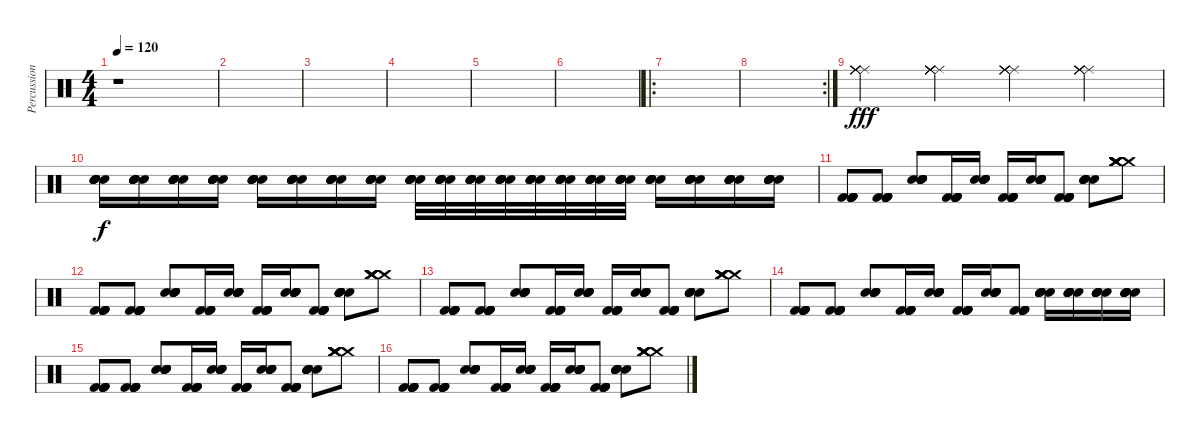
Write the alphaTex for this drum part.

\track ("Percussion" "Percussion") {instrument percussion}
\staff {score}
\articulation defaults
\ts (4 4)
\tempo 120
\clef neutral
\ks c
r.1{dy fff} |
|
|
|
|
|
\ro
|
\rc 2
|
("Ride (middle)" "Ride (middle)" "Ride (middle)" "Ride (middle)" "Ride (middle)" "Ride (middle)").4 ("Ride (middle)" "Ride (middle)" "Ride (middle)" "Ride (middle)" "Ride (middle)" "Ride (middle)").4 ("Ride (middle)" "Ride (middle)" "Ride (middle)" "Ride (middle)" "Ride (middle)" "Ride (middle)").4 ("Ride (middle)" "Ride (middle)" "Ride (middle)" "Ride (middle)" "Ride (middle)" "Ride (middle)").4 |
("Snare (hit) 2" "Snare (hit) 2" "Snare (hit) 2" "Snare (hit) 2" "Snare (hit) 2").16{dy f} ("Snare (hit) 2" "Snare (hit) 2" "Snare (hit) 2" "Snare (hit) 2" "Snare (hit) 2").16 ("Snare (hit) 2" "Snare (hit) 2" "Snare (hit) 2" "Snare (hit) 2" "Snare (hit) 2").16 ("Snare (hit) 2" "Snare (hit) 2" "Snare (hit) 2" "Snare (hit) 2" "Snare (hit) 2").16 ("Snare (hit) 2" "Snare (hit) 2" "Snare (hit) 2" "Snare (hit) 2" "Snare (hit) 2").16 ("Snare (hit) 2" "Snare (hit) 2" "Snare (hit) 2" "Snare (hit) 2" "Snare (hit) 2").16 ("Snare (hit) 2" "Snare (hit) 2" "Snare (hit) 2" "Snare (hit) 2" "Snare (hit) 2").16 ("Snare (hit) 2" "Snare (hit) 2" "Snare (hit) 2" "Snare (hit) 2" "Snare (hit) 2").16 ("Snare (hit) 2" "Snare (hit) 2" "Snare (hit) 2" "Snare (hit) 2" "Snare (hit) 2").32 ("Snare (hit) 2" "Snare (hit) 2" "Snare (hit) 2" "Snare (hit) 2" "Snare (hit) 2").32 ("Snare (hit) 2" "Snare (hit) 2" "Snare (hit) 2" "Snare (hit) 2" "Snare (hit) 2").32 ("Snare (hit) 2" "Snare (hit) 2" "Snare (hit) 2" "Snare (hit) 2" "Snare (hit) 2").32 ("Snare (hit) 2" "Snare (hit) 2" "Snare (hit) 2" "Snare (hit) 2" "Snare (hit) 2").32 ("Snare (hit) 2" "Snare (hit) 2" "Snare (hit) 2" "Snare (hit) 2" "Snare (hit) 2").32 ("Snare (hit) 2" "Snare (hit) 2" "Snare (hit) 2" "Snare (hit) 2" "Snare (hit) 2").32 ("Snare (hit) 2" "Snare (hit) 2" "Snare (hit) 2" "Snare (hit) 2" "Snare (hit) 2").32 ("Snare (hit) 2" "Snare (hit) 2" "Snare (hit) 2" "Snare (hit) 2" "Snare (hit) 2").16 ("Snare (hit) 2" "Snare (hit) 2" "Snare (hit) 2" "Snare (hit) 2" "Snare (hit) 2").16 ("Snare (hit) 2" "Snare (hit) 2" "Snare (hit) 2" "Snare (hit) 2" "Snare (hit) 2").16 ("Snare (hit) 2" "Snare (hit) 2" "Snare (hit) 2" "Snare (hit) 2" "Snare (hit) 2").16 |
("Kick (hit) 2" "Kick (hit) 2" "Kick (hit) 2" "Kick (hit) 2" "Kick (hit) 2").8 ("Kick (hit) 2" "Kick (hit) 2" "Kick (hit) 2" "Kick (hit) 2" "Kick (hit) 2").8 ("Snare (hit) 2" "Snare (hit) 2" "Snare (hit) 2" "Snare (hit) 2" "Snare (hit) 2").8 ("Kick (hit) 2" "Kick (hit) 2" "Kick (hit) 2" "Kick (hit) 2" "Kick (hit) 2").16 ("Snare (hit) 2" "Snare (hit) 2" "Snare (hit) 2" "Snare (hit) 2" "Snare (hit) 2").16 ("Kick (hit) 2" "Kick (hit) 2" "Kick (hit) 2" "Kick (hit) 2" "Kick (hit) 2").16 ("Snare (hit) 2" "Snare (hit) 2" "Snare (hit) 2" "Snare (hit) 2" "Snare (hit) 2").16 ("Kick (hit) 2" "Kick (hit) 2" "Kick (hit) 2" "Kick (hit) 2" "Kick (hit) 2").8 ("Snare (hit) 2" "Snare (hit) 2" "Snare (hit) 2" "Snare (hit) 2" "Snare (hit) 2").8 ("Crash medium (hit)" "Crash medium (hit)" "Crash medium (hit)" "Crash medium (hit)" "Crash medium (hit)" "Crash medium (hit)").8 |
("Kick (hit) 2" "Kick (hit) 2" "Kick (hit) 2" "Kick (hit) 2" "Kick (hit) 2").8 ("Kick (hit) 2" "Kick (hit) 2" "Kick (hit) 2" "Kick (hit) 2" "Kick (hit) 2").8 ("Snare (hit) 2" "Snare (hit) 2" "Snare (hit) 2" "Snare (hit) 2" "Snare (hit) 2").8 ("Kick (hit) 2" "Kick (hit) 2" "Kick (hit) 2" "Kick (hit) 2" "Kick (hit) 2").16 ("Snare (hit) 2" "Snare (hit) 2" "Snare (hit) 2" "Snare (hit) 2" "Snare (hit) 2").16 ("Kick (hit) 2" "Kick (hit) 2" "Kick (hit) 2" "Kick (hit) 2" "Kick (hit) 2").16 ("Snare (hit) 2" "Snare (hit) 2" "Snare (hit) 2" "Snare (hit) 2" "Snare (hit) 2").16 ("Kick (hit) 2" "Kick (hit) 2" "Kick (hit) 2" "Kick (hit) 2" "Kick (hit) 2").8 ("Snare (hit) 2" "Snare (hit) 2" "Snare (hit) 2" "Snare (hit) 2" "Snare (hit) 2").8 ("Crash medium (hit)" "Crash medium (hit)" "Crash medium (hit)" "Crash medium (hit)" "Crash medium (hit)" "Crash medium (hit)").8 |
("Kick (hit) 2" "Kick (hit) 2" "Kick (hit) 2" "Kick (hit) 2" "Kick (hit) 2").8 ("Kick (hit) 2" "Kick (hit) 2" "Kick (hit) 2" "Kick (hit) 2" "Kick (hit) 2").8 ("Snare (hit) 2" "Snare (hit) 2" "Snare (hit) 2" "Snare (hit) 2" "Snare (hit) 2").8 ("Kick (hit) 2" "Kick (hit) 2" "Kick (hit) 2" "Kick (hit) 2" "Kick (hit) 2").16 ("Snare (hit) 2" "Snare (hit) 2" "Snare (hit) 2" "Snare (hit) 2" "Snare (hit) 2").16 ("Kick (hit) 2" "Kick (hit) 2" "Kick (hit) 2" "Kick (hit) 2" "Kick (hit) 2").16 ("Snare (hit) 2" "Snare (hit) 2" "Snare (hit) 2" "Snare (hit) 2" "Snare (hit) 2").16 ("Kick (hit) 2" "Kick (hit) 2" "Kick (hit) 2" "Kick (hit) 2" "Kick (hit) 2").8 ("Snare (hit) 2" "Snare (hit) 2" "Snare (hit) 2" "Snare (hit) 2" "Snare (hit) 2").8 ("Crash medium (hit)" "Crash medium (hit)" "Crash medium (hit)" "Crash medium (hit)" "Crash medium (hit)" "Crash medium (hit)").8 |
("Kick (hit) 2" "Kick (hit) 2" "Kick (hit) 2" "Kick (hit) 2" "Kick (hit) 2").8 ("Kick (hit) 2" "Kick (hit) 2" "Kick (hit) 2" "Kick (hit) 2" "Kick (hit) 2").8 ("Snare (hit) 2" "Snare (hit) 2" "Snare (hit) 2" "Snare (hit) 2" "Snare (hit) 2").8 ("Kick (hit) 2" "Kick (hit) 2" "Kick (hit) 2" "Kick (hit) 2" "Kick (hit) 2").16 ("Snare (hit) 2" "Snare (hit) 2" "Snare (hit) 2" "Snare (hit) 2" "Snare (hit) 2").16 ("Kick (hit) 2" "Kick (hit) 2" "Kick (hit) 2" "Kick (hit) 2" "Kick (hit) 2").16 ("Snare (hit) 2" "Snare (hit) 2" "Snare (hit) 2" "Snare (hit) 2" "Snare (hit) 2").16 ("Kick (hit) 2" "Kick (hit) 2" "Kick (hit) 2" "Kick (hit) 2" "Kick (hit) 2").8 ("Snare (hit) 2" "Snare (hit) 2" "Snare (hit) 2" "Snare (hit) 2" "Snare (hit) 2").16 ("Snare (hit) 2" "Snare (hit) 2" "Snare (hit) 2" "Snare (hit) 2" "Snare (hit) 2").16 ("Snare (hit) 2" "Snare (hit) 2" "Snare (hit) 2" "Snare (hit) 2" "Snare (hit) 2").16 ("Snare (hit) 2" "Snare (hit) 2" "Snare (hit) 2" "Snare (hit) 2" "Snare (hit) 2").16 |
("Kick (hit) 2" "Kick (hit) 2" "Kick (hit) 2" "Kick (hit) 2" "Kick (hit) 2").8 ("Kick (hit) 2" "Kick (hit) 2" "Kick (hit) 2" "Kick (hit) 2" "Kick (hit) 2").8 ("Snare (hit) 2" "Snare (hit) 2" "Snare (hit) 2" "Snare (hit) 2" "Snare (hit) 2").8 ("Kick (hit) 2" "Kick (hit) 2" "Kick (hit) 2" "Kick (hit) 2" "Kick (hit) 2").16 ("Snare (hit) 2" "Snare (hit) 2" "Snare (hit) 2" "Snare (hit) 2" "Snare (hit) 2").16 ("Kick (hit) 2" "Kick (hit) 2" "Kick (hit) 2" "Kick (hit) 2" "Kick (hit) 2").16 ("Snare (hit) 2" "Snare (hit) 2" "Snare (hit) 2" "Snare (hit) 2" "Snare (hit) 2").16 ("Kick (hit) 2" "Kick (hit) 2" "Kick (hit) 2" "Kick (hit) 2" "Kick (hit) 2").8 ("Snare (hit) 2" "Snare (hit) 2" "Snare (hit) 2" "Snare (hit) 2" "Snare (hit) 2").8 ("Crash medium (hit)" "Crash medium (hit)" "Crash medium (hit)" "Crash medium (hit)" "Crash medium (hit)" "Crash medium (hit)").8 |
("Kick (hit) 2" "Kick (hit) 2" "Kick (hit) 2" "Kick (hit) 2" "Kick (hit) 2").8 ("Kick (hit) 2" "Kick (hit) 2" "Kick (hit) 2" "Kick (hit) 2" "Kick (hit) 2").8 ("Snare (hit) 2" "Snare (hit) 2" "Snare (hit) 2" "Snare (hit) 2" "Snare (hit) 2").8 ("Kick (hit) 2" "Kick (hit) 2" "Kick (hit) 2" "Kick (hit) 2" "Kick (hit) 2").16 ("Snare (hit) 2" "Snare (hit) 2" "Snare (hit) 2" "Snare (hit) 2" "Snare (hit) 2").16 ("Kick (hit) 2" "Kick (hit) 2" "Kick (hit) 2" "Kick (hit) 2" "Kick (hit) 2").16 ("Snare (hit) 2" "Snare (hit) 2" "Snare (hit) 2" "Snare (hit) 2" "Snare (hit) 2").16 ("Kick (hit) 2" "Kick (hit) 2" "Kick (hit) 2" "Kick (hit) 2" "Kick (hit) 2").8 ("Snare (hit) 2" "Snare (hit) 2" "Snare (hit) 2" "Snare (hit) 2" "Snare (hit) 2").8 ("Crash medium (hit)" "Crash medium (hit)" "Crash medium (hit)" "Crash medium (hit)" "Crash medium (hit)" "Crash medium (hit)").8
